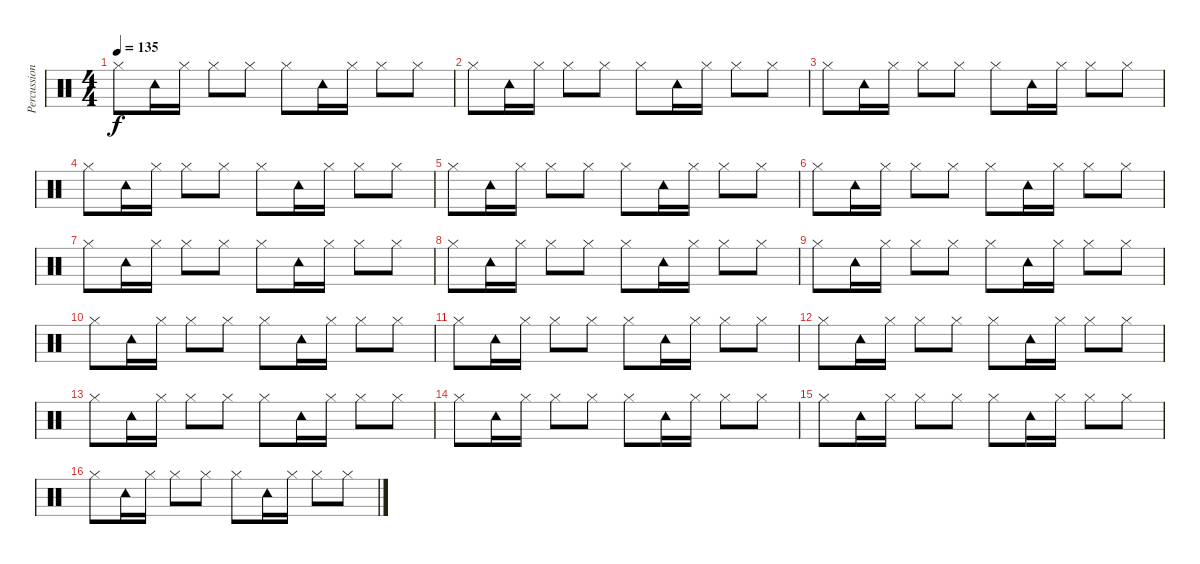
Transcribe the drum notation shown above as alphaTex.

\track ("Percussion2" "Percussion") {instrument percussion}
\staff {score}
\articulation defaults
\ts (4 4)
\tempo 135
\clef neutral
\ks c "Hi-Hat (closed)".8{dy f} "Tambourine (hit)".16 "Hi-Hat (closed)".16 "Hi-Hat (closed)".8 "Hi-Hat (closed)".8 "Hi-Hat (closed)".8 "Tambourine (hit)".16 "Hi-Hat (closed)".16 "Hi-Hat (closed)".8 "Hi-Hat (closed)".8
|
"Hi-Hat (closed)".8 "Tambourine (hit)".16 "Hi-Hat (closed)".16 "Hi-Hat (closed)".8 "Hi-Hat (closed)".8 "Hi-Hat (closed)".8 "Tambourine (hit)".16 "Hi-Hat (closed)".16 "Hi-Hat (closed)".8 "Hi-Hat (closed)".8 |
"Hi-Hat (closed)".8 "Tambourine (hit)".16 "Hi-Hat (closed)".16 "Hi-Hat (closed)".8 "Hi-Hat (closed)".8 "Hi-Hat (closed)".8 "Tambourine (hit)".16 "Hi-Hat (closed)".16 "Hi-Hat (closed)".8 "Hi-Hat (closed)".8 |
"Hi-Hat (closed)".8 "Tambourine (hit)".16 "Hi-Hat (closed)".16 "Hi-Hat (closed)".8 "Hi-Hat (closed)".8 "Hi-Hat (closed)".8 "Tambourine (hit)".16 "Hi-Hat (closed)".16 "Hi-Hat (closed)".8 "Hi-Hat (closed)".8 |
"Hi-Hat (closed)".8 "Tambourine (hit)".16 "Hi-Hat (closed)".16 "Hi-Hat (closed)".8 "Hi-Hat (closed)".8 "Hi-Hat (closed)".8 "Tambourine (hit)".16 "Hi-Hat (closed)".16 "Hi-Hat (closed)".8 "Hi-Hat (closed)".8 |
"Hi-Hat (closed)".8 "Tambourine (hit)".16 "Hi-Hat (closed)".16 "Hi-Hat (closed)".8 "Hi-Hat (closed)".8 "Hi-Hat (closed)".8 "Tambourine (hit)".16 "Hi-Hat (closed)".16 "Hi-Hat (closed)".8 "Hi-Hat (closed)".8 |
"Hi-Hat (closed)".8 "Tambourine (hit)".16 "Hi-Hat (closed)".16 "Hi-Hat (closed)".8 "Hi-Hat (closed)".8 "Hi-Hat (closed)".8 "Tambourine (hit)".16 "Hi-Hat (closed)".16 "Hi-Hat (closed)".8 "Hi-Hat (closed)".8 |
"Hi-Hat (closed)".8 "Tambourine (hit)".16 "Hi-Hat (closed)".16 "Hi-Hat (closed)".8 "Hi-Hat (closed)".8 "Hi-Hat (closed)".8 "Tambourine (hit)".16 "Hi-Hat (closed)".16 "Hi-Hat (closed)".8 "Hi-Hat (closed)".8 |
"Hi-Hat (closed)".8 "Tambourine (hit)".16 "Hi-Hat (closed)".16 "Hi-Hat (closed)".8 "Hi-Hat (closed)".8 "Hi-Hat (closed)".8 "Tambourine (hit)".16 "Hi-Hat (closed)".16 "Hi-Hat (closed)".8 "Hi-Hat (closed)".8 |
"Hi-Hat (closed)".8 "Tambourine (hit)".16 "Hi-Hat (closed)".16 "Hi-Hat (closed)".8 "Hi-Hat (closed)".8 "Hi-Hat (closed)".8 "Tambourine (hit)".16 "Hi-Hat (closed)".16 "Hi-Hat (closed)".8 "Hi-Hat (closed)".8 |
"Hi-Hat (closed)".8 "Tambourine (hit)".16 "Hi-Hat (closed)".16 "Hi-Hat (closed)".8 "Hi-Hat (closed)".8 "Hi-Hat (closed)".8 "Tambourine (hit)".16 "Hi-Hat (closed)".16 "Hi-Hat (closed)".8 "Hi-Hat (closed)".8 |
"Hi-Hat (closed)".8 "Tambourine (hit)".16 "Hi-Hat (closed)".16 "Hi-Hat (closed)".8 "Hi-Hat (closed)".8 "Hi-Hat (closed)".8 "Tambourine (hit)".16 "Hi-Hat (closed)".16 "Hi-Hat (closed)".8 "Hi-Hat (closed)".8 |
"Hi-Hat (closed)".8 "Tambourine (hit)".16 "Hi-Hat (closed)".16 "Hi-Hat (closed)".8 "Hi-Hat (closed)".8 "Hi-Hat (closed)".8 "Tambourine (hit)".16 "Hi-Hat (closed)".16 "Hi-Hat (closed)".8 "Hi-Hat (closed)".8 |
"Hi-Hat (closed)".8 "Tambourine (hit)".16 "Hi-Hat (closed)".16 "Hi-Hat (closed)".8 "Hi-Hat (closed)".8 "Hi-Hat (closed)".8 "Tambourine (hit)".16 "Hi-Hat (closed)".16 "Hi-Hat (closed)".8 "Hi-Hat (closed)".8 |
"Hi-Hat (closed)".8 "Tambourine (hit)".16 "Hi-Hat (closed)".16 "Hi-Hat (closed)".8 "Hi-Hat (closed)".8 "Hi-Hat (closed)".8 "Tambourine (hit)".16 "Hi-Hat (closed)".16 "Hi-Hat (closed)".8 "Hi-Hat (closed)".8 |
"Hi-Hat (closed)".8 "Tambourine (hit)".16 "Hi-Hat (closed)".16 "Hi-Hat (closed)".8 "Hi-Hat (closed)".8 "Hi-Hat (closed)".8 "Tambourine (hit)".16 "Hi-Hat (closed)".16 "Hi-Hat (closed)".8 "Hi-Hat (closed)".8
